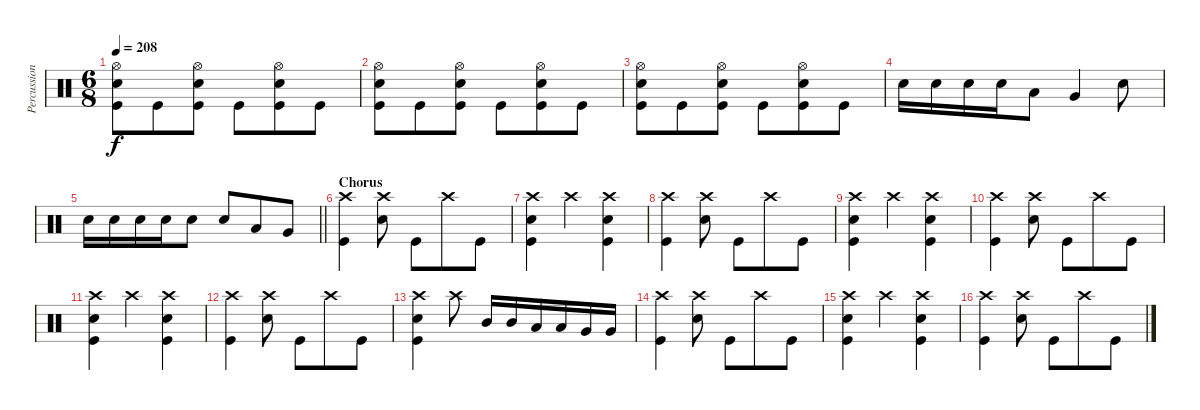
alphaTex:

\track ("Percussion" "Percussion") {instrument percussion}
\staff {score}
\articulation defaults
\ts (6 8)
\tempo 208
\clef neutral
\ks c
("Hi-Hat (open)" "Electric Snare (hit)" "Kick (hit)").8{dy f} "Kick (hit)".8 ("Hi-Hat (open)" "Electric Snare (hit)" "Kick (hit)").8 "Kick (hit)".8 ("Hi-Hat (open)" "Electric Snare (hit)" "Kick (hit)").8 "Kick (hit)".8 |
("Hi-Hat (open)" "Electric Snare (hit)" "Kick (hit)").8 "Kick (hit)".8 ("Hi-Hat (open)" "Electric Snare (hit)" "Kick (hit)").8 "Kick (hit)".8 ("Hi-Hat (open)" "Electric Snare (hit)" "Kick (hit)").8 "Kick (hit)".8 |
("Hi-Hat (open)" "Electric Snare (hit)" "Kick (hit)").8 "Kick (hit)".8 ("Hi-Hat (open)" "Electric Snare (hit)" "Kick (hit)").8 "Kick (hit)".8 ("Hi-Hat (open)" "Electric Snare (hit)" "Kick (hit)").8 "Kick (hit)".8 |
"Electric Snare (hit)".16 "Electric Snare (hit)".16 "Electric Snare (hit)".16 "Electric Snare (hit)".16 "Low Tom (hit)".8 "Very Low Tom (hit)".4 "Electric Snare (hit)".8 |
\barLineRight lightlight "Electric Snare (hit)".16 "Electric Snare (hit)".16 "Electric Snare (hit)".16 "Electric Snare (hit)".16 "Electric Snare (hit)".8 "Electric Snare (hit)".8 "Low Tom (hit)".8 "Very Low Tom (hit)".8
|
\section ("" "Chorus")
("Crash high (hit)" "Kick (hit)").4 ("Crash high (hit)" "Electric Snare (hit)").8 "Kick (hit)".8 "Crash high (hit)".8 "Kick (hit)".8 |
("Crash high (hit)" "Electric Snare (hit)" "Kick (hit)").4 "Crash high (hit)".4 ("Crash high (hit)" "Electric Snare (hit)" "Kick (hit)").4 |
("Crash high (hit)" "Kick (hit)").4 ("Crash high (hit)" "Electric Snare (hit)").8 "Kick (hit)".8 "Crash high (hit)".8 "Kick (hit)".8 |
("Crash high (hit)" "Electric Snare (hit)" "Kick (hit)").4 "Crash high (hit)".4 ("Crash high (hit)" "Electric Snare (hit)" "Kick (hit)").4 |
("Crash high (hit)" "Kick (hit)").4 ("Crash high (hit)" "Electric Snare (hit)").8 "Kick (hit)".8 "Crash high (hit)".8 "Kick (hit)".8 |
("Crash high (hit)" "Electric Snare (hit)" "Kick (hit)").4 "Crash high (hit)".4 ("Crash high (hit)" "Electric Snare (hit)" "Kick (hit)").4 |
("Crash high (hit)" "Kick (hit)").4 ("Crash high (hit)" "Electric Snare (hit)").8 "Kick (hit)".8 "Crash high (hit)".8 "Kick (hit)".8 |
("Crash high (hit)" "Electric Snare (hit)" "Kick (hit)").4 "Crash high (hit)".8 "Mid Tom (hit)".16 "Mid Tom (hit)".16 "Low Tom (hit)".16 "Low Tom (hit)".16 "Very Low Tom (hit)".16 "Very Low Tom (hit)".16 |
("Crash high (hit)" "Kick (hit)").4 ("Crash high (hit)" "Electric Snare (hit)").8 "Kick (hit)".8 "Crash high (hit)".8 "Kick (hit)".8 |
("Crash high (hit)" "Electric Snare (hit)" "Kick (hit)").4 "Crash high (hit)".4 ("Crash high (hit)" "Electric Snare (hit)" "Kick (hit)").4 |
("Crash high (hit)" "Kick (hit)").4 ("Crash high (hit)" "Electric Snare (hit)").8 "Kick (hit)".8 "Crash high (hit)".8 "Kick (hit)".8
